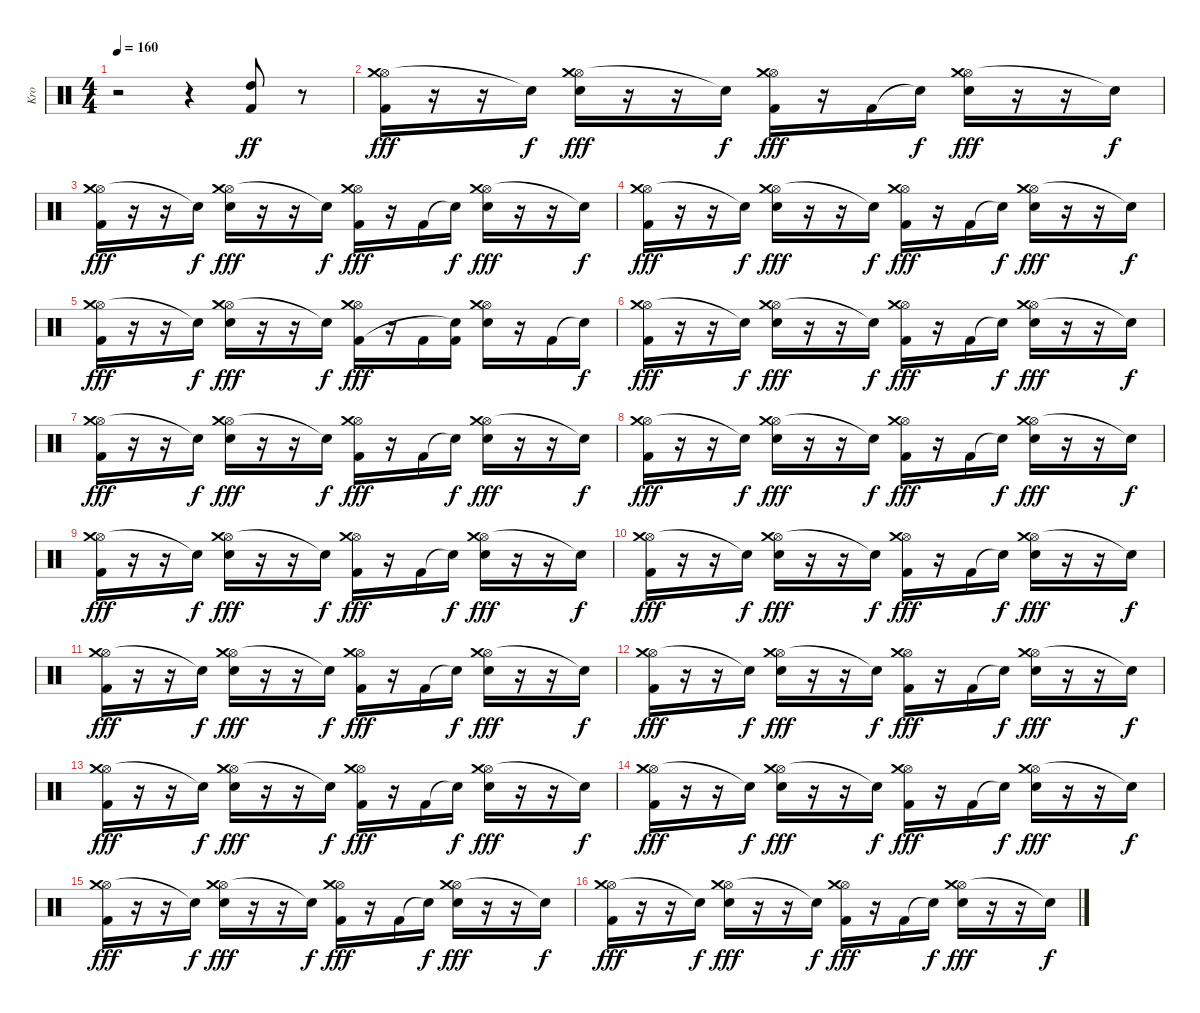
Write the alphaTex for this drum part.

\track ("Kro" "Kro") {instrument percussion}
\staff {score}
\articulation defaults
\ts (4 4)
\tempo 160
\clef neutral
\ks c
r.2{dy fff} r.4 ("Kick (hit) 2" "High Tom (hit)").8{dy ff} r.8 |
("Hi-Hat (open)" "Kick (hit) 2" "Crash medium (hit)").16{dy fff} r.16 r.16 "Snare (hit)"{t}.16{dy f} ("Hi-Hat (open)" "Snare (hit) 2" "Crash medium (hit)").16{dy fff} r.16 r.16 "Snare (hit)"{t}.16{dy f} ("Hi-Hat (open)" "Kick (hit) 2" "Crash medium (hit)").16{dy fff} r.16 "Kick (hit) 2".16 "Snare (hit)"{t}.16{dy f} ("Hi-Hat (open)" "Snare (hit) 2" "Crash medium (hit)").16{dy fff} r.16 r.16 "Snare (hit)"{t}.16{dy f} |
("Hi-Hat (open)" "Kick (hit) 2" "Crash medium (hit)").16{dy fff} r.16 r.16 "Snare (hit)"{t}.16{dy f} ("Hi-Hat (open)" "Snare (hit) 2" "Crash medium (hit)").16{dy fff} r.16 r.16 "Snare (hit)"{t}.16{dy f} ("Hi-Hat (open)" "Kick (hit) 2" "Crash medium (hit)").16{dy fff} r.16 "Kick (hit) 2".16 "Snare (hit)"{t}.16{dy f} ("Hi-Hat (open)" "Snare (hit) 2" "Crash medium (hit)").16{dy fff} r.16 r.16 "Snare (hit)"{t}.16{dy f} |
("Hi-Hat (open)" "Kick (hit) 2" "Crash medium (hit)").16{dy fff} r.16 r.16 "Snare (hit)"{t}.16{dy f} ("Hi-Hat (open)" "Snare (hit) 2" "Crash medium (hit)").16{dy fff} r.16 r.16 "Snare (hit)"{t}.16{dy f} ("Hi-Hat (open)" "Kick (hit) 2" "Crash medium (hit)").16{dy fff} r.16 "Kick (hit) 2".16 "Snare (hit)"{t}.16{dy f} ("Hi-Hat (open)" "Snare (hit) 2" "Crash medium (hit)").16{dy fff} r.16 r.16 "Snare (hit)"{t}.16{dy f} |
("Hi-Hat (open)" "Kick (hit) 2" "Crash medium (hit)").16{dy fff} r.16 r.16 "Snare (hit)"{t}.16{dy f} ("Hi-Hat (open)" "Snare (hit) 2" "Crash medium (hit)").16{dy fff} r.16 r.16 "Snare (hit)"{t}.16{dy f} ("Hi-Hat (open)" "Kick (hit) 2" "Crash medium (hit)").16{dy fff} r.16 "Kick (hit) 2".16 ("Kick (hit) 2" "Snare (hit)"{t}).16 ("Hi-Hat (open)" "Snare (hit) 2" "Crash medium (hit)").16 r.16 "Kick (hit) 2".16 "Snare (hit)"{t}.16{dy f} |
("Hi-Hat (open)" "Kick (hit) 2" "Crash medium (hit)").16{dy fff} r.16 r.16 "Snare (hit)"{t}.16{dy f} ("Hi-Hat (open)" "Snare (hit) 2" "Crash medium (hit)").16{dy fff} r.16 r.16 "Snare (hit)"{t}.16{dy f} ("Hi-Hat (open)" "Kick (hit) 2" "Crash medium (hit)").16{dy fff} r.16 "Kick (hit) 2".16 "Snare (hit)"{t}.16{dy f} ("Hi-Hat (open)" "Snare (hit) 2" "Crash medium (hit)").16{dy fff} r.16 r.16 "Snare (hit)"{t}.16{dy f} |
("Hi-Hat (open)" "Kick (hit) 2" "Crash medium (hit)").16{dy fff} r.16 r.16 "Snare (hit)"{t}.16{dy f} ("Hi-Hat (open)" "Snare (hit) 2" "Crash medium (hit)").16{dy fff} r.16 r.16 "Snare (hit)"{t}.16{dy f} ("Hi-Hat (open)" "Kick (hit) 2" "Crash medium (hit)").16{dy fff} r.16 "Kick (hit) 2".16 "Snare (hit)"{t}.16{dy f} ("Hi-Hat (open)" "Snare (hit) 2" "Crash medium (hit)").16{dy fff} r.16 r.16 "Snare (hit)"{t}.16{dy f} |
("Hi-Hat (open)" "Kick (hit) 2" "Crash medium (hit)").16{dy fff} r.16 r.16 "Snare (hit)"{t}.16{dy f} ("Hi-Hat (open)" "Snare (hit) 2" "Crash medium (hit)").16{dy fff} r.16 r.16 "Snare (hit)"{t}.16{dy f} ("Hi-Hat (open)" "Kick (hit) 2" "Crash medium (hit)").16{dy fff} r.16 "Kick (hit) 2".16 "Snare (hit)"{t}.16{dy f} ("Hi-Hat (open)" "Snare (hit) 2" "Crash medium (hit)").16{dy fff} r.16 r.16 "Snare (hit)"{t}.16{dy f} |
("Hi-Hat (open)" "Kick (hit) 2" "Crash medium (hit)").16{dy fff} r.16 r.16 "Snare (hit)"{t}.16{dy f} ("Hi-Hat (open)" "Snare (hit) 2" "Crash medium (hit)").16{dy fff} r.16 r.16 "Snare (hit)"{t}.16{dy f} ("Hi-Hat (open)" "Kick (hit) 2" "Crash medium (hit)").16{dy fff} r.16 "Kick (hit) 2".16 "Snare (hit)"{t}.16{dy f} ("Hi-Hat (open)" "Snare (hit) 2" "Crash medium (hit)").16{dy fff} r.16 r.16 "Snare (hit)"{t}.16{dy f} |
("Hi-Hat (open)" "Kick (hit) 2" "Crash medium (hit)").16{dy fff} r.16 r.16 "Snare (hit)"{t}.16{dy f} ("Hi-Hat (open)" "Snare (hit) 2" "Crash medium (hit)").16{dy fff} r.16 r.16 "Snare (hit)"{t}.16{dy f} ("Hi-Hat (open)" "Kick (hit) 2" "Crash medium (hit)").16{dy fff} r.16 "Kick (hit) 2".16 "Snare (hit)"{t}.16{dy f} ("Hi-Hat (open)" "Snare (hit) 2" "Crash medium (hit)").16{dy fff} r.16 r.16 "Snare (hit)"{t}.16{dy f} |
("Hi-Hat (open)" "Kick (hit) 2" "Crash medium (hit)").16{dy fff} r.16 r.16 "Snare (hit)"{t}.16{dy f} ("Hi-Hat (open)" "Snare (hit) 2" "Crash medium (hit)").16{dy fff} r.16 r.16 "Snare (hit)"{t}.16{dy f} ("Hi-Hat (open)" "Kick (hit) 2" "Crash medium (hit)").16{dy fff} r.16 "Kick (hit) 2".16 "Snare (hit)"{t}.16{dy f} ("Hi-Hat (open)" "Snare (hit) 2" "Crash medium (hit)").16{dy fff} r.16 r.16 "Snare (hit)"{t}.16{dy f} |
("Hi-Hat (open)" "Kick (hit) 2" "Crash medium (hit)").16{dy fff} r.16 r.16 "Snare (hit)"{t}.16{dy f} ("Hi-Hat (open)" "Snare (hit) 2" "Crash medium (hit)").16{dy fff} r.16 r.16 "Snare (hit)"{t}.16{dy f} ("Hi-Hat (open)" "Kick (hit) 2" "Crash medium (hit)").16{dy fff} r.16 "Kick (hit) 2".16 "Snare (hit)"{t}.16{dy f} ("Hi-Hat (open)" "Snare (hit) 2" "Crash medium (hit)").16{dy fff} r.16 r.16 "Snare (hit)"{t}.16{dy f} |
("Hi-Hat (open)" "Kick (hit) 2" "Crash medium (hit)").16{dy fff} r.16 r.16 "Snare (hit)"{t}.16{dy f} ("Hi-Hat (open)" "Snare (hit) 2" "Crash medium (hit)").16{dy fff} r.16 r.16 "Snare (hit)"{t}.16{dy f} ("Hi-Hat (open)" "Kick (hit) 2" "Crash medium (hit)").16{dy fff} r.16 "Kick (hit) 2".16 "Snare (hit)"{t}.16{dy f} ("Hi-Hat (open)" "Snare (hit) 2" "Crash medium (hit)").16{dy fff} r.16 r.16 "Snare (hit)"{t}.16{dy f} |
("Hi-Hat (open)" "Kick (hit) 2" "Crash medium (hit)").16{dy fff} r.16 r.16 "Snare (hit)"{t}.16{dy f} ("Hi-Hat (open)" "Snare (hit) 2" "Crash medium (hit)").16{dy fff} r.16 r.16 "Snare (hit)"{t}.16{dy f} ("Hi-Hat (open)" "Kick (hit) 2" "Crash medium (hit)").16{dy fff} r.16 "Kick (hit) 2".16 "Snare (hit)"{t}.16{dy f} ("Hi-Hat (open)" "Snare (hit) 2" "Crash medium (hit)").16{dy fff} r.16 r.16 "Snare (hit)"{t}.16{dy f} |
("Hi-Hat (open)" "Kick (hit) 2" "Crash medium (hit)").16{dy fff} r.16 r.16 "Snare (hit)"{t}.16{dy f} ("Hi-Hat (open)" "Snare (hit) 2" "Crash medium (hit)").16{dy fff} r.16 r.16 "Snare (hit)"{t}.16{dy f} ("Hi-Hat (open)" "Kick (hit) 2" "Crash medium (hit)").16{dy fff} r.16 "Kick (hit) 2".16 "Snare (hit)"{t}.16{dy f} ("Hi-Hat (open)" "Snare (hit) 2" "Crash medium (hit)").16{dy fff} r.16 r.16 "Snare (hit)"{t}.16{dy f} |
("Hi-Hat (open)" "Kick (hit) 2" "Crash medium (hit)").16{dy fff} r.16 r.16 "Snare (hit)"{t}.16{dy f} ("Hi-Hat (open)" "Snare (hit) 2" "Crash medium (hit)").16{dy fff} r.16 r.16 "Snare (hit)"{t}.16{dy f} ("Hi-Hat (open)" "Kick (hit) 2" "Crash medium (hit)").16{dy fff} r.16 "Kick (hit) 2".16 "Snare (hit)"{t}.16{dy f} ("Hi-Hat (open)" "Snare (hit) 2" "Crash medium (hit)").16{dy fff} r.16 r.16 "Snare (hit)"{t}.16{dy f}
